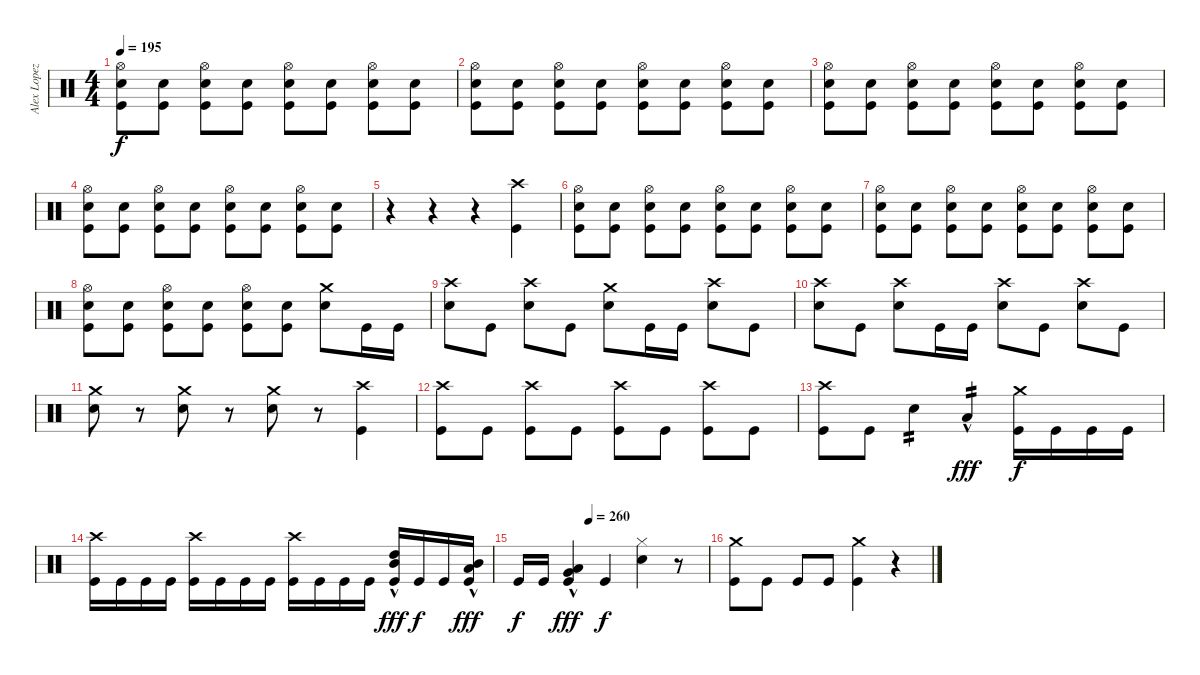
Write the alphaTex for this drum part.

\track ("Alex Lopez" "Alex Lopez") {instrument percussion}
\staff {score}
\articulation defaults
\ts (4 4)
\tempo 195
\clef neutral
\ks c
("Hi-Hat (open)" "Electric Snare (hit)" "Kick (hit)").8{dy f} ("Electric Snare (hit)" "Kick (hit)").8 ("Hi-Hat (open)" "Electric Snare (hit)" "Kick (hit)").8 ("Electric Snare (hit)" "Kick (hit)").8 ("Hi-Hat (open)" "Electric Snare (hit)" "Kick (hit)").8 ("Electric Snare (hit)" "Kick (hit)").8 ("Hi-Hat (open)" "Electric Snare (hit)" "Kick (hit)").8 ("Electric Snare (hit)" "Kick (hit)").8 |
("Hi-Hat (open)" "Electric Snare (hit)" "Kick (hit)").8 ("Electric Snare (hit)" "Kick (hit)").8 ("Hi-Hat (open)" "Electric Snare (hit)" "Kick (hit)").8 ("Electric Snare (hit)" "Kick (hit)").8 ("Hi-Hat (open)" "Electric Snare (hit)" "Kick (hit)").8 ("Electric Snare (hit)" "Kick (hit)").8 ("Hi-Hat (open)" "Electric Snare (hit)" "Kick (hit)").8 ("Electric Snare (hit)" "Kick (hit)").8 |
("Hi-Hat (open)" "Electric Snare (hit)" "Kick (hit)").8 ("Electric Snare (hit)" "Kick (hit)").8 ("Hi-Hat (open)" "Electric Snare (hit)" "Kick (hit)").8 ("Electric Snare (hit)" "Kick (hit)").8 ("Hi-Hat (open)" "Electric Snare (hit)" "Kick (hit)").8 ("Electric Snare (hit)" "Kick (hit)").8 ("Hi-Hat (open)" "Electric Snare (hit)" "Kick (hit)").8 ("Electric Snare (hit)" "Kick (hit)").8 |
("Hi-Hat (open)" "Electric Snare (hit)" "Kick (hit)").8 ("Electric Snare (hit)" "Kick (hit)").8 ("Hi-Hat (open)" "Electric Snare (hit)" "Kick (hit)").8 ("Electric Snare (hit)" "Kick (hit)").8 ("Hi-Hat (open)" "Electric Snare (hit)" "Kick (hit)").8 ("Electric Snare (hit)" "Kick (hit)").8 ("Hi-Hat (open)" "Electric Snare (hit)" "Kick (hit)").8 ("Electric Snare (hit)" "Kick (hit)").8 |
r.4 r.4 r.4 ("Crash high (hit)" "Kick (hit)").4 |
("Hi-Hat (open)" "Electric Snare (hit)" "Kick (hit)").8 ("Electric Snare (hit)" "Kick (hit)").8 ("Hi-Hat (open)" "Electric Snare (hit)" "Kick (hit)").8 ("Electric Snare (hit)" "Kick (hit)").8 ("Hi-Hat (open)" "Electric Snare (hit)" "Kick (hit)").8 ("Electric Snare (hit)" "Kick (hit)").8 ("Hi-Hat (open)" "Electric Snare (hit)" "Kick (hit)").8 ("Electric Snare (hit)" "Kick (hit)").8 |
("Hi-Hat (open)" "Electric Snare (hit)" "Kick (hit)").8 ("Electric Snare (hit)" "Kick (hit)").8 ("Hi-Hat (open)" "Electric Snare (hit)" "Kick (hit)").8 ("Electric Snare (hit)" "Kick (hit)").8 ("Hi-Hat (open)" "Electric Snare (hit)" "Kick (hit)").8 ("Electric Snare (hit)" "Kick (hit)").8 ("Hi-Hat (open)" "Electric Snare (hit)" "Kick (hit)").8 ("Electric Snare (hit)" "Kick (hit)").8 |
("Hi-Hat (open)" "Electric Snare (hit)" "Kick (hit)").8 ("Electric Snare (hit)" "Kick (hit)").8 ("Hi-Hat (open)" "Electric Snare (hit)" "Kick (hit)").8 ("Electric Snare (hit)" "Kick (hit)").8 ("Hi-Hat (open)" "Electric Snare (hit)" "Kick (hit)").8 ("Electric Snare (hit)" "Kick (hit)").8 ("Crash medium (hit)" "Electric Snare (hit)").8 "Kick (hit)".16 "Kick (hit)".16 |
("Crash high (hit)" "Electric Snare (hit)").8 "Kick (hit)".8 ("Crash high (hit)" "Electric Snare (hit)").8 "Kick (hit)".8 ("Crash medium (hit)" "Electric Snare (hit)").8 "Kick (hit)".16 "Kick (hit)".16 ("Crash high (hit)" "Electric Snare (hit)").8 "Kick (hit)".8 |
("Crash high (hit)" "Electric Snare (hit)").8 "Kick (hit)".8 ("Crash high (hit)" "Electric Snare (hit)").8 "Kick (hit)".16 "Kick (hit)".16 ("Crash high (hit)" "Electric Snare (hit)").8 "Kick (hit)".8 ("Crash high (hit)" "Electric Snare (hit)").8 "Kick (hit)".8 |
("Crash medium (hit)" "Electric Snare (hit)").8 r.8 ("Crash medium (hit)" "Electric Snare (hit)").8 r.8 ("Crash medium (hit)" "Electric Snare (hit)").8 r.8 ("Crash high (hit)" "Kick (hit)").4 |
("Crash high (hit)" "Kick (hit)").8 "Kick (hit)".8 ("Crash high (hit)" "Kick (hit)").8 "Kick (hit)".8 ("Crash high (hit)" "Kick (hit)").8 "Kick (hit)".8 ("Crash high (hit)" "Kick (hit)").8 "Kick (hit)".8 |
("Crash high (hit)" "Kick (hit)").8 "Kick (hit)".8 "Electric Snare (hit)".4{tp 2} "Low Tom (hit)"{hac}.4{tp 2 dy fff} ("Crash medium (hit)" "Kick (hit)").16{dy f} "Kick (hit)".16 "Kick (hit)".16 "Kick (hit)".16 |
("Crash high (hit)" "Kick (hit)").16 "Kick (hit)".16 "Kick (hit)".16 "Kick (hit)".16 ("Crash high (hit)" "Kick (hit)").16 "Kick (hit)".16 "Kick (hit)".16 "Kick (hit)".16 ("Crash high (hit)" "Kick (hit)").16 "Kick (hit)".16 "Kick (hit)".16 "Kick (hit)".16 ("High Tom (hit)"{hac} "Mid Tom (hit)"{hac} "Kick (hit)").16{dy fff} "Kick (hit)".16{dy f} "Kick (hit)".16 ("Mid Tom (hit)"{hac} "Low Tom (hit)"{hac} "Kick (hit)").16{dy fff} |
\tempo (260 0.375)
"Kick (hit)".16{dy f} "Kick (hit)".16 ("Low Tom (hit)"{hac} "Very Low Tom (hit)"{hac} "Kick (hit)").4{dy fff} "Kick (hit)".4{dy f} ("Hi-Hat (closed)" "Electric Snare (hit)").4 r.8 |
("Crash medium (hit)" "Kick (hit)").8 "Kick (hit)".8 "Kick (hit)".8 "Kick (hit)".8 ("Crash medium (hit)" "Kick (hit)").4 r.4
